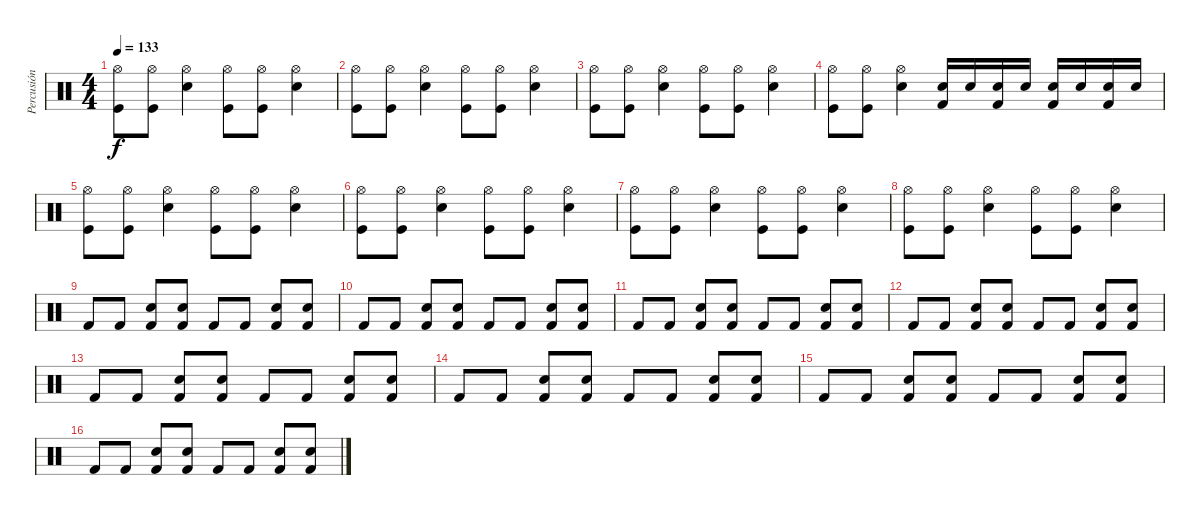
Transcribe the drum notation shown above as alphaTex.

\track ("Percusión" "Percusión") {instrument percussion}
\staff {score}
\articulation defaults
\ts (4 4)
\tempo 133
\clef neutral
\ks c
("Kick (hit)" "Hi-Hat (open)").8{dy f} ("Kick (hit)" "Hi-Hat (open)").8 ("Snare (hit) 2" "Hi-Hat (open)").4 ("Kick (hit)" "Hi-Hat (open)").8 ("Kick (hit)" "Hi-Hat (open)").8 ("Snare (hit) 2" "Hi-Hat (open)").4 |
("Kick (hit)" "Hi-Hat (open)").8 ("Kick (hit)" "Hi-Hat (open)").8 ("Snare (hit) 2" "Hi-Hat (open)").4 ("Kick (hit)" "Hi-Hat (open)").8 ("Kick (hit)" "Hi-Hat (open)").8 ("Snare (hit) 2" "Hi-Hat (open)").4 |
("Kick (hit)" "Hi-Hat (open)").8 ("Kick (hit)" "Hi-Hat (open)").8 ("Snare (hit) 2" "Hi-Hat (open)").4 ("Kick (hit)" "Hi-Hat (open)").8 ("Kick (hit)" "Hi-Hat (open)").8 ("Snare (hit) 2" "Hi-Hat (open)").4 |
("Kick (hit)" "Hi-Hat (open)").8 ("Kick (hit)" "Hi-Hat (open)").8 ("Snare (hit) 2" "Hi-Hat (open)").4 ("Snare (hit) 2" "Kick (hit) 2").16 "Snare (hit) 2".16 ("Snare (hit) 2" "Kick (hit) 2").16 "Snare (hit) 2".16 ("Snare (hit) 2" "Kick (hit) 2").16 "Snare (hit) 2".16 ("Snare (hit) 2" "Kick (hit) 2").16 "Snare (hit) 2".16 |
("Kick (hit)" "Hi-Hat (open)").8 ("Kick (hit)" "Hi-Hat (open)").8 ("Snare (hit) 2" "Hi-Hat (open)").4 ("Kick (hit)" "Hi-Hat (open)").8 ("Kick (hit)" "Hi-Hat (open)").8 ("Snare (hit) 2" "Hi-Hat (open)").4 |
("Kick (hit)" "Hi-Hat (open)").8 ("Kick (hit)" "Hi-Hat (open)").8 ("Snare (hit) 2" "Hi-Hat (open)").4 ("Kick (hit)" "Hi-Hat (open)").8 ("Kick (hit)" "Hi-Hat (open)").8 ("Snare (hit) 2" "Hi-Hat (open)").4 |
("Kick (hit)" "Hi-Hat (open)").8 ("Kick (hit)" "Hi-Hat (open)").8 ("Snare (hit) 2" "Hi-Hat (open)").4 ("Kick (hit)" "Hi-Hat (open)").8 ("Kick (hit)" "Hi-Hat (open)").8 ("Snare (hit) 2" "Hi-Hat (open)").4 |
("Kick (hit)" "Hi-Hat (open)").8 ("Kick (hit)" "Hi-Hat (open)").8 ("Snare (hit) 2" "Hi-Hat (open)").4 ("Kick (hit)" "Hi-Hat (open)").8 ("Kick (hit)" "Hi-Hat (open)").8 ("Snare (hit) 2" "Hi-Hat (open)").4 |
"Kick (hit) 2".8 "Kick (hit) 2".8 ("Kick (hit) 2" "Snare (hit) 2").8 ("Kick (hit) 2" "Snare (hit) 2").8 "Kick (hit) 2".8 "Kick (hit) 2".8 ("Kick (hit) 2" "Snare (hit) 2").8 ("Kick (hit) 2" "Snare (hit) 2").8 |
"Kick (hit) 2".8 "Kick (hit) 2".8 ("Kick (hit) 2" "Snare (hit) 2").8 ("Kick (hit) 2" "Snare (hit) 2").8 "Kick (hit) 2".8 "Kick (hit) 2".8 ("Kick (hit) 2" "Snare (hit) 2").8 ("Kick (hit) 2" "Snare (hit) 2").8 |
"Kick (hit) 2".8 "Kick (hit) 2".8 ("Kick (hit) 2" "Snare (hit) 2").8 ("Kick (hit) 2" "Snare (hit) 2").8 "Kick (hit) 2".8 "Kick (hit) 2".8 ("Kick (hit) 2" "Snare (hit) 2").8 ("Kick (hit) 2" "Snare (hit) 2").8 |
"Kick (hit) 2".8 "Kick (hit) 2".8 ("Kick (hit) 2" "Snare (hit) 2").8 ("Kick (hit) 2" "Snare (hit) 2").8 "Kick (hit) 2".8 "Kick (hit) 2".8 ("Kick (hit) 2" "Snare (hit) 2").8 ("Kick (hit) 2" "Snare (hit) 2").8 |
"Kick (hit) 2".8 "Kick (hit) 2".8 ("Kick (hit) 2" "Snare (hit) 2").8 ("Kick (hit) 2" "Snare (hit) 2").8 "Kick (hit) 2".8 "Kick (hit) 2".8 ("Kick (hit) 2" "Snare (hit) 2").8 ("Kick (hit) 2" "Snare (hit) 2").8 |
"Kick (hit) 2".8 "Kick (hit) 2".8 ("Kick (hit) 2" "Snare (hit) 2").8 ("Kick (hit) 2" "Snare (hit) 2").8 "Kick (hit) 2".8 "Kick (hit) 2".8 ("Kick (hit) 2" "Snare (hit) 2").8 ("Kick (hit) 2" "Snare (hit) 2").8 |
"Kick (hit) 2".8 "Kick (hit) 2".8 ("Kick (hit) 2" "Snare (hit) 2").8 ("Kick (hit) 2" "Snare (hit) 2").8 "Kick (hit) 2".8 "Kick (hit) 2".8 ("Kick (hit) 2" "Snare (hit) 2").8 ("Kick (hit) 2" "Snare (hit) 2").8 |
"Kick (hit) 2".8 "Kick (hit) 2".8 ("Kick (hit) 2" "Snare (hit) 2").8 ("Kick (hit) 2" "Snare (hit) 2").8 "Kick (hit) 2".8 "Kick (hit) 2".8 ("Kick (hit) 2" "Snare (hit) 2").8 ("Kick (hit) 2" "Snare (hit) 2").8
